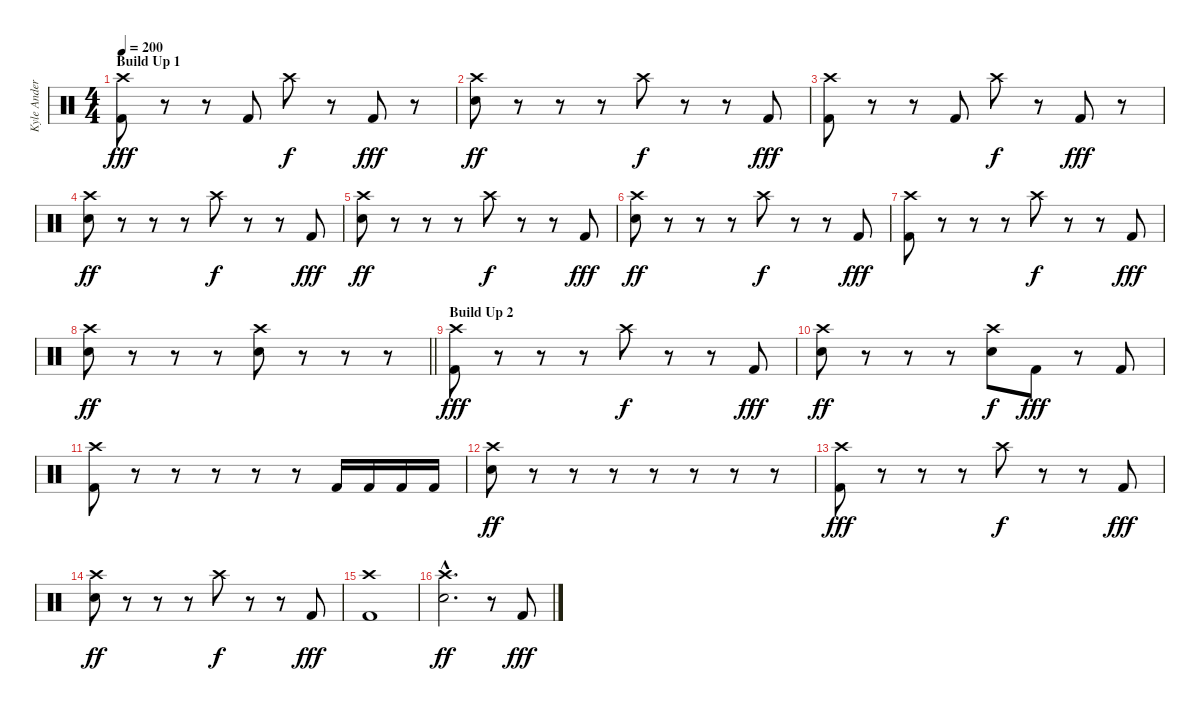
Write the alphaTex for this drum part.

\track ("Kyle Anderson" "Kyle Ander") {instrument percussion}
\staff {score}
\articulation defaults
\ts (4 4)
\section ("" "Build Up 1")
\tempo 200
\clef neutral
\ks c
("Crash high (hit)" "Kick (hit) 2").8{dy fff} r.8 r.8 "Kick (hit) 2".8 "Crash high (hit)".8{dy f} r.8 "Kick (hit) 2".8{dy fff} r.8 |
("Crash high (hit)" "Electric Snare (hit)").8{dy ff} r.8 r.8 r.8 "Crash high (hit)".8{dy f} r.8 r.8 "Kick (hit) 2".8{dy fff} |
("Crash high (hit)" "Kick (hit) 2").8 r.8 r.8 "Kick (hit) 2".8 "Crash high (hit)".8{dy f} r.8 "Kick (hit) 2".8{dy fff} r.8 |
("Crash high (hit)" "Electric Snare (hit)").8{dy ff} r.8 r.8 r.8 "Crash high (hit)".8{dy f} r.8 r.8 "Kick (hit) 2".8{dy fff} |
("Crash high (hit)" "Electric Snare (hit)").8{dy ff} r.8 r.8 r.8 "Crash high (hit)".8{dy f} r.8 r.8 "Kick (hit) 2".8{dy fff} |
("Crash high (hit)" "Electric Snare (hit)").8{dy ff} r.8 r.8 r.8 "Crash high (hit)".8{dy f} r.8 r.8 "Kick (hit) 2".8{dy fff} |
("Crash high (hit)" "Kick (hit) 2").8 r.8 r.8 r.8 "Crash high (hit)".8{dy f} r.8 r.8 "Kick (hit) 2".8{dy fff} |
\barLineRight lightlight
("Crash high (hit)" "Electric Snare (hit)").8{dy ff} r.8 r.8 r.8 ("Crash high (hit)" "Electric Snare (hit)").8 r.8 r.8 r.8 |
\section ("" "Build Up 2")
("Crash high (hit)" "Kick (hit) 2").8{dy fff} r.8 r.8 r.8 "Crash high (hit)".8{dy f} r.8 r.8 "Kick (hit) 2".8{dy fff} |
("Crash high (hit)" "Electric Snare (hit)").8{dy ff} r.8 r.8 r.8 ("Crash high (hit)" "Electric Snare (hit)").8{dy f} "Kick (hit) 2".8{dy fff} r.8 "Kick (hit) 2".8 |
("Crash high (hit)" "Kick (hit) 2").8 r.8 r.8 r.8 r.8 r.8 "Kick (hit) 2".16 "Kick (hit) 2".16 "Kick (hit) 2".16 "Kick (hit) 2".16 |
("Crash high (hit)" "Electric Snare (hit)").8{dy ff} r.8 r.8 r.8 r.8 r.8 r.8 r.8 |
("Crash high (hit)" "Kick (hit) 2").8{dy fff} r.8 r.8 r.8 "Crash high (hit)".8{dy f} r.8 r.8 "Kick (hit) 2".8{dy fff} |
("Crash high (hit)" "Electric Snare (hit)").8{dy ff} r.8 r.8 r.8 "Crash high (hit)".8{dy f} r.8 r.8 "Kick (hit) 2".8{dy fff} |
("Crash high (hit)" "Kick (hit) 2").1 |
("Crash high (hit)"{hac} "Electric Snare (hit)"{hac}).2{d dy ff} r.8 "Kick (hit) 2".8{dy fff}
